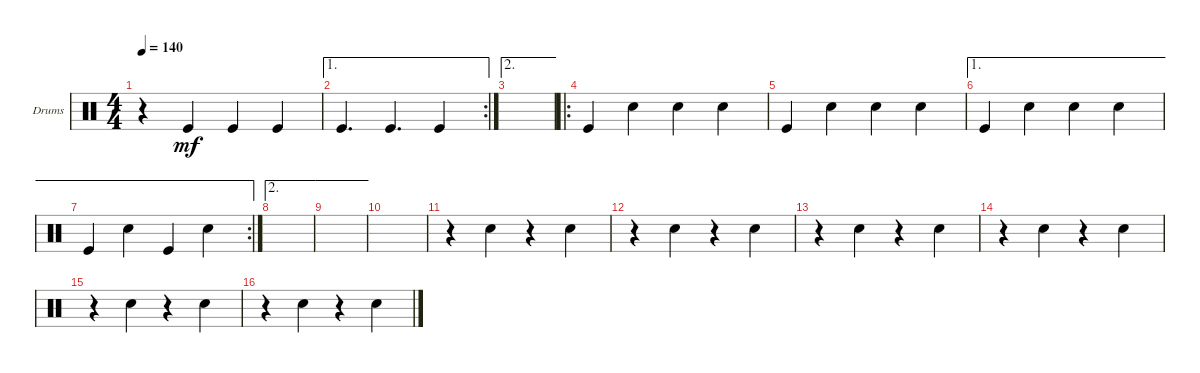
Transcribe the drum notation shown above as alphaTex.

\defaultSystemsLayout 4
\bracketExtendMode groupsimilarinstruments
\firstSystemTrackNameOrientation horizontal
\otherSystemsTrackNameOrientation horizontal
\track ("Drumkit" "Drums") {instrument percussion}
\staff {score}
\articulation defaults
\ts (4 4)
\tempo 140
\clef neutral
\scale
0.475
\ks c
r.4{dy mf} "Kick (hit)".4 "Kick (hit)".4 "Kick (hit)".4 |
\ae 1
\rc 2
\scale
0.525 "Kick (hit)".4{d} "Kick (hit)".4{d} "Kick (hit)".4 |
\ae 2
\scale
0.452381 |
\ro
\scale
0.547619 "Kick (hit)".4 "Snare (hit) 2".4 "Snare (hit) 2".4 "Snare (hit) 2".4 |
\scale
0.5 "Kick (hit)".4 "Snare (hit) 2".4 "Snare (hit) 2".4 "Snare (hit) 2".4 |
\ae 1
\scale
0.5 "Kick (hit)".4 "Snare (hit) 2".4 "Snare (hit) 2".4 "Snare (hit) 2".4 |
\ae 1
\rc 2
\scale
0.525 "Kick (hit)".4 "Snare (hit) 2".4 "Kick (hit)".4 "Snare (hit) 2".4 |
\ae 2
\scale
0.475 |
\ae 2
\scale
0.5 |
\scale
0.5 |
\scale
0.5 r.4 "Snare (hit) 2".4 r.4 "Snare (hit) 2".4 |
\scale
0.5 r.4 "Snare (hit) 2".4 r.4 "Snare (hit) 2".4 |
\scale
0.5 r.4 "Snare (hit) 2".4 r.4 "Snare (hit) 2".4 |
\scale
0.5 r.4 "Snare (hit) 2".4 r.4 "Snare (hit) 2".4 |
\scale
0.5 r.4 "Snare (hit) 2".4 r.4 "Snare (hit) 2".4 |
\scale
0.5 r.4 "Snare (hit) 2".4 r.4 "Snare (hit) 2".4
